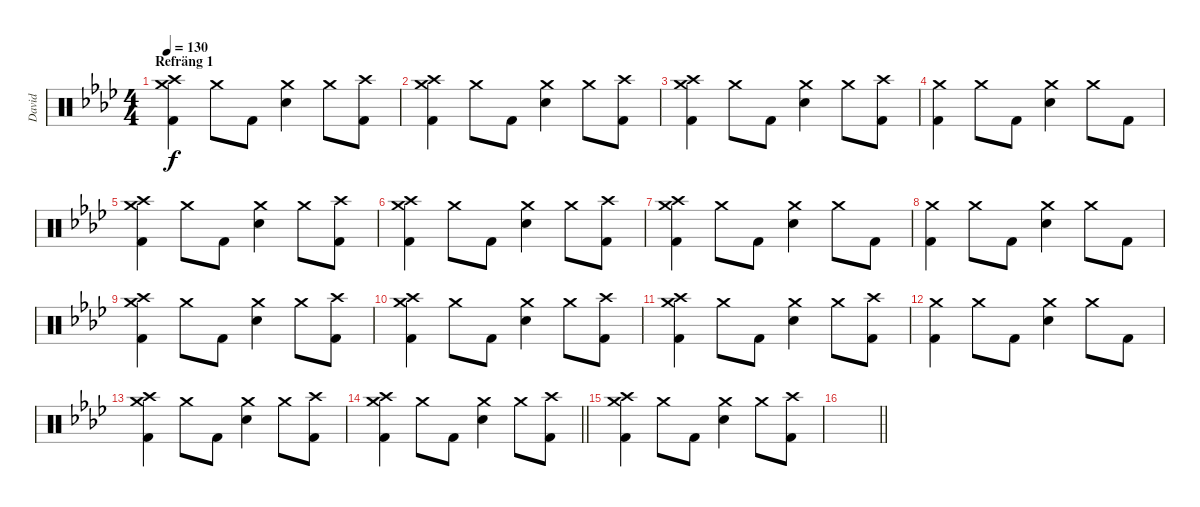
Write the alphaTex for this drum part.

\track ("David" "David") {instrument percussion}
\staff {score}
\articulation defaults
\ts (4 4)
\section ("" "Refräng 1")
\tempo 130
\clef neutral
\ks ab
("Crash medium (hit)" "Crash high (hit)" "Kick (hit) 2").4{dy f} "Crash medium (hit)".8 "Kick (hit) 2".8 ("Crash medium (hit)" "Electric Snare (hit)").4 "Crash medium (hit)".8 ("Crash high (hit)" "Kick (hit) 2").8 |
("Crash medium (hit)" "Crash high (hit)" "Kick (hit) 2").4 "Crash medium (hit)".8 "Kick (hit) 2".8 ("Crash medium (hit)" "Electric Snare (hit)").4 "Crash medium (hit)".8 ("Crash high (hit)" "Kick (hit) 2").8 |
("Crash medium (hit)" "Crash high (hit)" "Kick (hit) 2").4 "Crash medium (hit)".8 "Kick (hit) 2".8 ("Crash medium (hit)" "Electric Snare (hit)").4 "Crash medium (hit)".8 ("Crash high (hit)" "Kick (hit) 2").8 |
("Crash medium (hit)" "Kick (hit) 2").4 "Crash medium (hit)".8 "Kick (hit) 2".8 ("Crash medium (hit)" "Electric Snare (hit)").4 "Crash medium (hit)".8 "Kick (hit) 2".8 |
("Crash medium (hit)" "Crash high (hit)" "Kick (hit) 2").4 "Crash medium (hit)".8 "Kick (hit) 2".8 ("Crash medium (hit)" "Electric Snare (hit)").4 "Crash medium (hit)".8 ("Crash high (hit)" "Kick (hit) 2").8 |
("Crash medium (hit)" "Crash high (hit)" "Kick (hit) 2").4 "Crash medium (hit)".8 "Kick (hit) 2".8 ("Crash medium (hit)" "Electric Snare (hit)").4 "Crash medium (hit)".8 ("Crash high (hit)" "Kick (hit) 2").8 |
("Crash medium (hit)" "Crash high (hit)" "Kick (hit) 2").4 "Crash medium (hit)".8 "Kick (hit) 2".8 ("Crash medium (hit)" "Electric Snare (hit)").4 "Crash medium (hit)".8 "Kick (hit) 2".8 |
("Crash medium (hit)" "Kick (hit) 2").4 "Crash medium (hit)".8 "Kick (hit) 2".8 ("Crash medium (hit)" "Electric Snare (hit)").4 "Crash medium (hit)".8 "Kick (hit) 2".8 |
("Crash medium (hit)" "Crash high (hit)" "Kick (hit) 2").4 "Crash medium (hit)".8 "Kick (hit) 2".8 ("Crash medium (hit)" "Electric Snare (hit)").4 "Crash medium (hit)".8 ("Crash high (hit)" "Kick (hit) 2").8 |
("Crash medium (hit)" "Crash high (hit)" "Kick (hit) 2").4 "Crash medium (hit)".8 "Kick (hit) 2".8 ("Crash medium (hit)" "Electric Snare (hit)").4 "Crash medium (hit)".8 ("Crash high (hit)" "Kick (hit) 2").8 |
("Crash medium (hit)" "Crash high (hit)" "Kick (hit) 2").4 "Crash medium (hit)".8 "Kick (hit) 2".8 ("Crash medium (hit)" "Electric Snare (hit)").4 "Crash medium (hit)".8 ("Crash high (hit)" "Kick (hit) 2").8 |
("Crash medium (hit)" "Kick (hit) 2").4 "Crash medium (hit)".8 "Kick (hit) 2".8 ("Crash medium (hit)" "Electric Snare (hit)").4 "Crash medium (hit)".8 "Kick (hit) 2".8 |
("Crash medium (hit)" "Crash high (hit)" "Kick (hit) 2").4 "Crash medium (hit)".8 "Kick (hit) 2".8 ("Crash medium (hit)" "Electric Snare (hit)").4 "Crash medium (hit)".8 ("Crash high (hit)" "Kick (hit) 2").8 |
\barLineRight lightlight
("Crash medium (hit)" "Crash high (hit)" "Kick (hit) 2").4 "Crash medium (hit)".8 "Kick (hit) 2".8 ("Crash medium (hit)" "Electric Snare (hit)").4 "Crash medium (hit)".8 ("Crash high (hit)" "Kick (hit) 2").8 |
\section ("" "")
("Crash medium (hit)" "Crash high (hit)" "Kick (hit) 2").4 "Crash medium (hit)".8 "Kick (hit) 2".8 ("Crash medium (hit)" "Electric Snare (hit)").4 "Crash medium (hit)".8 ("Crash high (hit)" "Kick (hit) 2").8 |
\barLineRight lightlight
